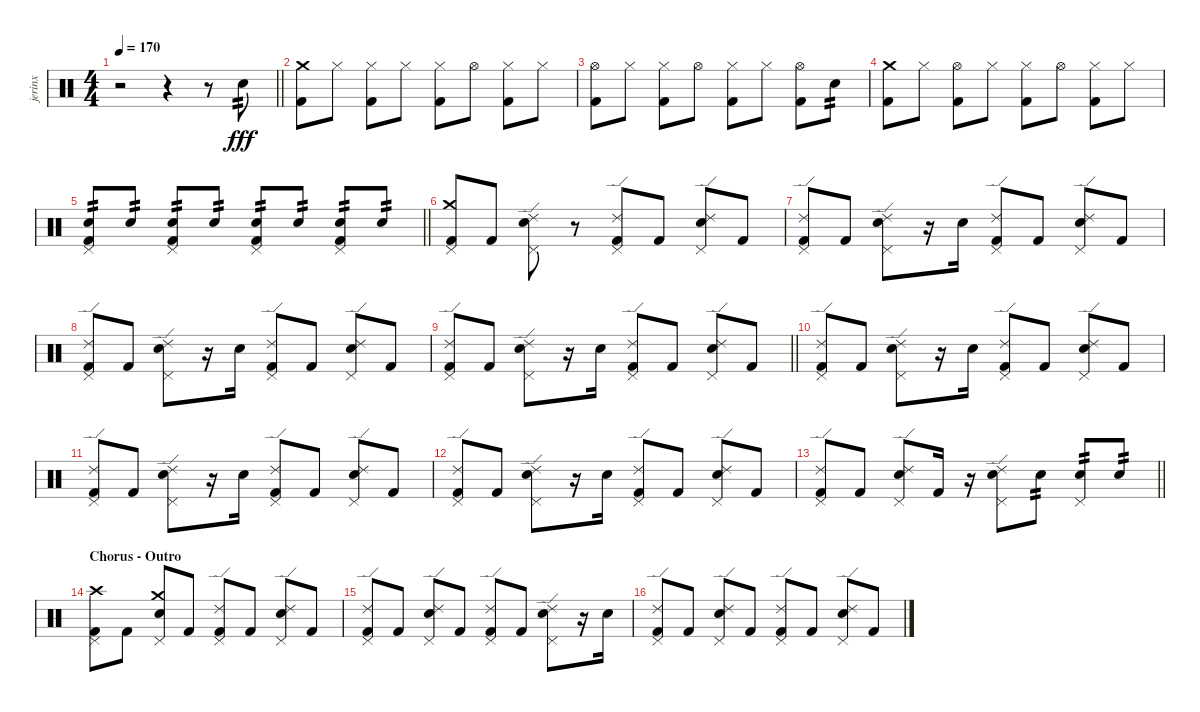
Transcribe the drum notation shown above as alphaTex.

\track ("jerinx" "jerinx") {instrument percussion}
\staff {score}
\articulation defaults
\ts (4 4)
\tempo 170
\clef neutral
\barLineRight lightlight
\ks c
r.2{dy fff} r.4 r.8 "Snare (hit) 2".8{tp 2} |
("Kick (hit) 2" "Crash medium (hit)").8 "Hi-Hat (closed)".8 ("Hi-Hat (closed)" "Kick (hit) 2").8 "Hi-Hat (closed)".8 ("Hi-Hat (closed)" "Kick (hit) 2").8 "Hi-Hat (open)".8 ("Hi-Hat (closed)" "Kick (hit) 2").8 "Hi-Hat (closed)".8 |
("Hi-Hat (open)" "Kick (hit) 2").8 "Hi-Hat (closed)".8 ("Hi-Hat (closed)" "Kick (hit) 2").8 "Hi-Hat (open)".8 ("Hi-Hat (closed)" "Kick (hit) 2").8 "Hi-Hat (closed)".8 ("Hi-Hat (open)" "Kick (hit) 2").8 "Snare (hit) 2".8{tp 2} |
("Kick (hit) 2" "Crash medium (hit)").8 "Hi-Hat (closed)".8 ("Hi-Hat (open)" "Kick (hit) 2").8 "Hi-Hat (closed)".8 ("Hi-Hat (closed)" "Kick (hit) 2").8 "Hi-Hat (open)".8 ("Hi-Hat (closed)" "Kick (hit) 2").8 "Hi-Hat (closed)".8 |
\barLineRight lightlight
("Pedal Hi-Hat (hit)" "Snare (hit) 2" "Kick (hit) 2").8{tp 2} "Snare (hit) 2".8{tp 2} ("Pedal Hi-Hat (hit)" "Snare (hit) 2" "Kick (hit) 2").8{tp 2} "Snare (hit) 2".8{tp 2} ("Pedal Hi-Hat (hit)" "Snare (hit) 2" "Kick (hit) 2").8{tp 2} "Snare (hit) 2".8{tp 2} ("Pedal Hi-Hat (hit)" "Snare (hit) 2" "Kick (hit) 2").8{tp 2} "Snare (hit) 2".8{tp 2} |
("Pedal Hi-Hat (hit)" "Kick (hit) 2" "Crash medium (hit)").8 "Kick (hit) 2".8 ("Pedal Hi-Hat (hit)" "Snare (hit) 2" "Ride (edge) 2").8 r.8 ("Pedal Hi-Hat (hit)" "Kick (hit) 2" "Ride (edge) 2").8 "Kick (hit) 2".8 ("Pedal Hi-Hat (hit)" "Snare (hit) 2" "Ride (edge) 2").8 "Kick (hit) 2".8 |
("Pedal Hi-Hat (hit)" "Kick (hit) 2" "Ride (edge) 2").8 "Kick (hit) 2".8 ("Pedal Hi-Hat (hit)" "Snare (hit) 2" "Ride (edge) 2").8 r.16 "Snare (hit) 2".16 ("Pedal Hi-Hat (hit)" "Kick (hit) 2" "Ride (edge) 2").8 "Kick (hit) 2".8 ("Pedal Hi-Hat (hit)" "Snare (hit) 2" "Ride (edge) 2").8 "Kick (hit) 2".8 |
("Pedal Hi-Hat (hit)" "Kick (hit) 2" "Ride (edge) 2").8 "Kick (hit) 2".8 ("Pedal Hi-Hat (hit)" "Snare (hit) 2" "Ride (edge) 2").8 r.16 "Snare (hit) 2".16 ("Pedal Hi-Hat (hit)" "Kick (hit) 2" "Ride (edge) 2").8 "Kick (hit) 2".8 ("Pedal Hi-Hat (hit)" "Snare (hit) 2" "Ride (edge) 2").8 "Kick (hit) 2".8 |
\barLineRight lightlight
("Pedal Hi-Hat (hit)" "Kick (hit) 2" "Ride (edge) 2").8 "Kick (hit) 2".8 ("Pedal Hi-Hat (hit)" "Snare (hit) 2" "Ride (edge) 2").8 r.16 "Snare (hit) 2".16 ("Pedal Hi-Hat (hit)" "Kick (hit) 2" "Ride (edge) 2").8 "Kick (hit) 2".8 ("Pedal Hi-Hat (hit)" "Snare (hit) 2" "Ride (edge) 2").8 "Kick (hit) 2".8 |
("Pedal Hi-Hat (hit)" "Kick (hit) 2" "Ride (edge) 2").8 "Kick (hit) 2".8 ("Pedal Hi-Hat (hit)" "Snare (hit) 2" "Ride (edge) 2").8 r.16 "Snare (hit) 2".16 ("Pedal Hi-Hat (hit)" "Kick (hit) 2" "Ride (edge) 2").8 "Kick (hit) 2".8 ("Pedal Hi-Hat (hit)" "Snare (hit) 2" "Ride (edge) 2").8 "Kick (hit) 2".8 |
("Pedal Hi-Hat (hit)" "Kick (hit) 2" "Ride (edge) 2").8 "Kick (hit) 2".8 ("Pedal Hi-Hat (hit)" "Snare (hit) 2" "Ride (edge) 2").8 r.16 "Snare (hit) 2".16 ("Pedal Hi-Hat (hit)" "Kick (hit) 2" "Ride (edge) 2").8 "Kick (hit) 2".8 ("Pedal Hi-Hat (hit)" "Snare (hit) 2" "Ride (edge) 2").8 "Kick (hit) 2".8 |
("Pedal Hi-Hat (hit)" "Kick (hit) 2" "Ride (edge) 2").8 "Kick (hit) 2".8 ("Pedal Hi-Hat (hit)" "Snare (hit) 2" "Ride (edge) 2").8 r.16 "Snare (hit) 2".16 ("Pedal Hi-Hat (hit)" "Kick (hit) 2" "Ride (edge) 2").8 "Kick (hit) 2".8 ("Pedal Hi-Hat (hit)" "Snare (hit) 2" "Ride (edge) 2").8 "Kick (hit) 2".8 |
\barLineRight lightlight
("Pedal Hi-Hat (hit)" "Kick (hit) 2" "Ride (edge) 2").8 "Kick (hit) 2".8 ("Pedal Hi-Hat (hit)" "Snare (hit) 2" "Ride (edge) 2").8 "Kick (hit) 2".16 r.16 ("Pedal Hi-Hat (hit)" "Snare (hit) 2" "Ride (edge) 2").8 "Snare (hit) 2".8{tp 2} ("Pedal Hi-Hat (hit)" "Snare (hit) 2").8{tp 2} "Snare (hit) 2".8{tp 2} |
\section ("" "Chorus - Outro")
("Pedal Hi-Hat (hit)" "Kick (hit) 2" "Crash high (hit)").8 "Kick (hit) 2".8 ("Pedal Hi-Hat (hit)" "Snare (hit) 2" "Crash medium (hit)").8 "Kick (hit) 2".8 ("Pedal Hi-Hat (hit)" "Kick (hit) 2" "Ride (edge) 2").8 "Kick (hit) 2".8 ("Pedal Hi-Hat (hit)" "Snare (hit) 2" "Ride (edge) 2").8 "Kick (hit) 2".8 |
("Pedal Hi-Hat (hit)" "Kick (hit) 2" "Ride (edge) 2").8 "Kick (hit) 2".8 ("Pedal Hi-Hat (hit)" "Snare (hit) 2" "Ride (edge) 2").8 "Kick (hit) 2".8 ("Pedal Hi-Hat (hit)" "Kick (hit) 2" "Ride (edge) 2").8 "Kick (hit) 2".8 ("Pedal Hi-Hat (hit)" "Snare (hit) 2" "Ride (edge) 2").8 r.16 "Snare (hit) 2".16 |
("Pedal Hi-Hat (hit)" "Kick (hit) 2" "Ride (edge) 2").8 "Kick (hit) 2".8 ("Pedal Hi-Hat (hit)" "Snare (hit) 2" "Ride (edge) 2").8 "Kick (hit) 2".8 ("Pedal Hi-Hat (hit)" "Kick (hit) 2" "Ride (edge) 2").8 "Kick (hit) 2".8 ("Pedal Hi-Hat (hit)" "Snare (hit) 2" "Ride (edge) 2").8 "Kick (hit) 2".8
